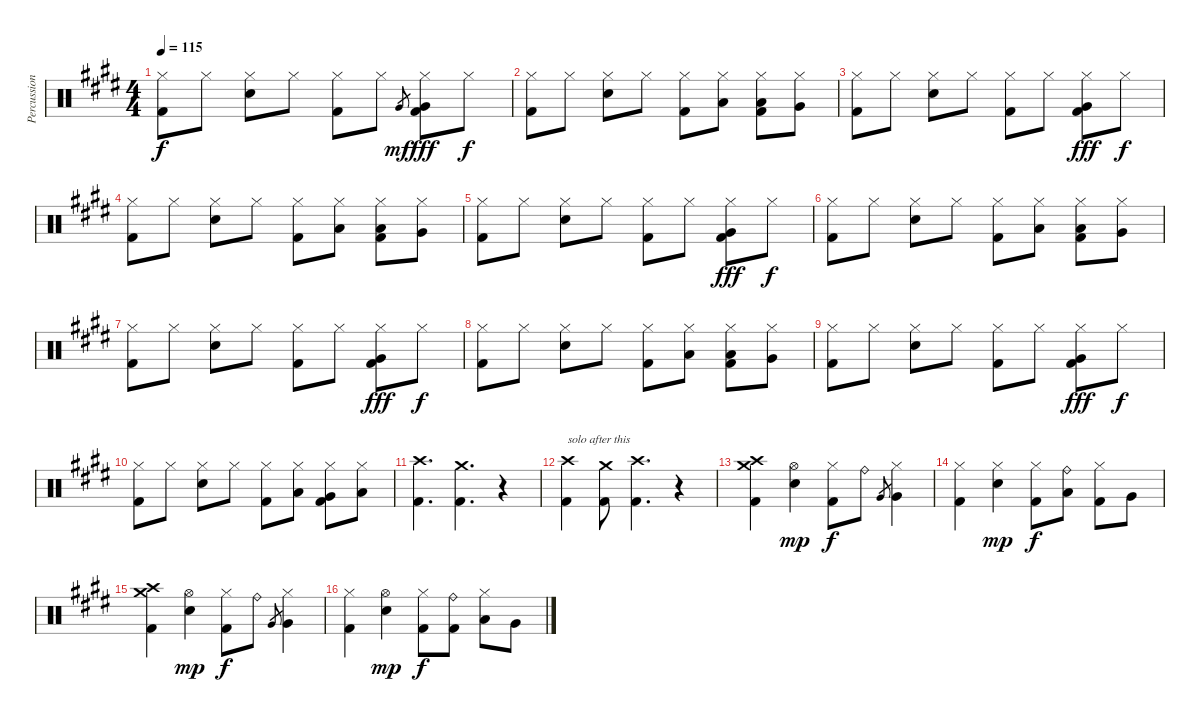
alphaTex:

\track ("Percussion" "Percussion") {instrument percussion}
\staff {score}
\articulation defaults
\ts (4 4)
\tempo 115
\clef neutral
\ks c#minor
("Hi-Hat (closed)" "Kick (hit) 2").8{dy f} "Hi-Hat (closed)".8 ("Hi-Hat (closed)" "Electric Snare (hit)").8 "Hi-Hat (closed)".8 ("Hi-Hat (closed)" "Kick (hit) 2").8 "Hi-Hat (closed)".8 "Very Low Tom (hit)".8{gr dy mf} ("Hi-Hat (closed)" "Very Low Tom (hit)" "Kick (hit) 2").8{dy fff} "Hi-Hat (closed)".8{dy f} |
("Hi-Hat (closed)" "Kick (hit) 2").8 "Hi-Hat (closed)".8 ("Hi-Hat (closed)" "Electric Snare (hit)").8 "Hi-Hat (closed)".8 ("Hi-Hat (closed)" "Kick (hit) 2").8 ("Hi-Hat (closed)" "Low Tom (hit)").8 ("Hi-Hat (closed)" "Low Floor Tom (hit)" "Kick (hit) 2").8 ("Hi-Hat (closed)" "Very Low Tom (hit)").8 |
("Hi-Hat (closed)" "Kick (hit) 2").8 "Hi-Hat (closed)".8 ("Hi-Hat (closed)" "Electric Snare (hit)").8 "Hi-Hat (closed)".8 ("Hi-Hat (closed)" "Kick (hit) 2").8 "Hi-Hat (closed)".8 ("Hi-Hat (closed)" "Very Low Tom (hit)" "Kick (hit) 2").8{dy fff} "Hi-Hat (closed)".8{dy f} |
("Hi-Hat (closed)" "Kick (hit) 2").8 "Hi-Hat (closed)".8 ("Hi-Hat (closed)" "Electric Snare (hit)").8 "Hi-Hat (closed)".8 ("Hi-Hat (closed)" "Kick (hit) 2").8 ("Hi-Hat (closed)" "Low Tom (hit)").8 ("Hi-Hat (closed)" "Low Floor Tom (hit)" "Kick (hit) 2").8 ("Hi-Hat (closed)" "Very Low Tom (hit)").8 |
("Hi-Hat (closed)" "Kick (hit) 2").8 "Hi-Hat (closed)".8 ("Hi-Hat (closed)" "Electric Snare (hit)").8 "Hi-Hat (closed)".8 ("Hi-Hat (closed)" "Kick (hit) 2").8 "Hi-Hat (closed)".8 ("Hi-Hat (closed)" "Very Low Tom (hit)" "Kick (hit) 2").8{dy fff} "Hi-Hat (closed)".8{dy f} |
("Hi-Hat (closed)" "Kick (hit) 2").8 "Hi-Hat (closed)".8 ("Hi-Hat (closed)" "Electric Snare (hit)").8 "Hi-Hat (closed)".8 ("Hi-Hat (closed)" "Kick (hit) 2").8 ("Hi-Hat (closed)" "Low Tom (hit)").8 ("Hi-Hat (closed)" "Low Floor Tom (hit)" "Kick (hit) 2").8 ("Hi-Hat (closed)" "Very Low Tom (hit)").8 |
("Hi-Hat (closed)" "Kick (hit) 2").8 "Hi-Hat (closed)".8 ("Hi-Hat (closed)" "Electric Snare (hit)").8 "Hi-Hat (closed)".8 ("Hi-Hat (closed)" "Kick (hit) 2").8 "Hi-Hat (closed)".8 ("Hi-Hat (closed)" "Very Low Tom (hit)" "Kick (hit) 2").8{dy fff} "Hi-Hat (closed)".8{dy f} |
("Hi-Hat (closed)" "Kick (hit) 2").8 "Hi-Hat (closed)".8 ("Hi-Hat (closed)" "Electric Snare (hit)").8 "Hi-Hat (closed)".8 ("Hi-Hat (closed)" "Kick (hit) 2").8 ("Hi-Hat (closed)" "Low Tom (hit)").8 ("Hi-Hat (closed)" "Low Floor Tom (hit)" "Kick (hit) 2").8 ("Hi-Hat (closed)" "Very Low Tom (hit)").8 |
("Hi-Hat (closed)" "Kick (hit) 2").8 "Hi-Hat (closed)".8 ("Hi-Hat (closed)" "Electric Snare (hit)").8 "Hi-Hat (closed)".8 ("Hi-Hat (closed)" "Kick (hit) 2").8 "Hi-Hat (closed)".8 ("Hi-Hat (closed)" "Very Low Tom (hit)" "Kick (hit) 2").8{dy fff} "Hi-Hat (closed)".8{dy f} |
("Hi-Hat (closed)" "Kick (hit) 2").8 "Hi-Hat (closed)".8 ("Hi-Hat (closed)" "Electric Snare (hit)").8 "Hi-Hat (closed)".8 ("Hi-Hat (closed)" "Kick (hit) 2").8 ("Hi-Hat (closed)" "Low Tom (hit)").8 ("Hi-Hat (closed)" "Very Low Tom (hit)" "Kick (hit) 2").8 ("Hi-Hat (closed)" "Low Floor Tom (hit)").8 |
("Crash high (hit)" "Kick (hit) 2").4{d} ("Crash medium (hit)" "Kick (hit) 2").4{d} r.4 |
("Crash high (hit)" "Kick (hit) 2").4{txt "solo after this"} ("Crash medium (hit)" "Kick (hit) 2").8 ("Crash high (hit)" "Kick (hit) 2").4{d} r.4 |
("Crash high (hit)" "Crash medium (hit)" "Kick (hit) 2").4 ("Hi-Hat (open)" "Electric Snare (hit)").4{dy mp} ("Hi-Hat (closed)" "Kick (hit) 2").8{dy f} "Ride (bell)".8 "Very Low Tom (hit)".8{gr} ("Hi-Hat (closed)" "Very Low Tom (hit)").4 |
("Hi-Hat (closed)" "Kick (hit) 2").4 ("Hi-Hat (closed)" "Electric Snare (hit)").4{dy mp} ("Hi-Hat (closed)" "Kick (hit) 2").8{dy f} ("Ride (bell)" "Low Tom (hit)").8 ("Hi-Hat (closed)" "Kick (hit) 2").8 "Very Low Tom (hit)".8 |
("Crash high (hit)" "Crash medium (hit)" "Kick (hit) 2").4 ("Hi-Hat (open)" "Electric Snare (hit)").4{dy mp} ("Hi-Hat (closed)" "Kick (hit) 2").8{dy f} "Ride (bell)".8 "Very Low Tom (hit)".8{gr} ("Hi-Hat (closed)" "Very Low Tom (hit)").4 |
("Hi-Hat (closed)" "Kick (hit) 2").4 ("Hi-Hat (open)" "Electric Snare (hit)").4{dy mp} ("Hi-Hat (closed)" "Kick (hit) 2").8{dy f} ("Ride (bell)" "Kick (hit) 2").8 ("Hi-Hat (closed)" "Low Tom (hit)").8 "Very Low Tom (hit)".8
